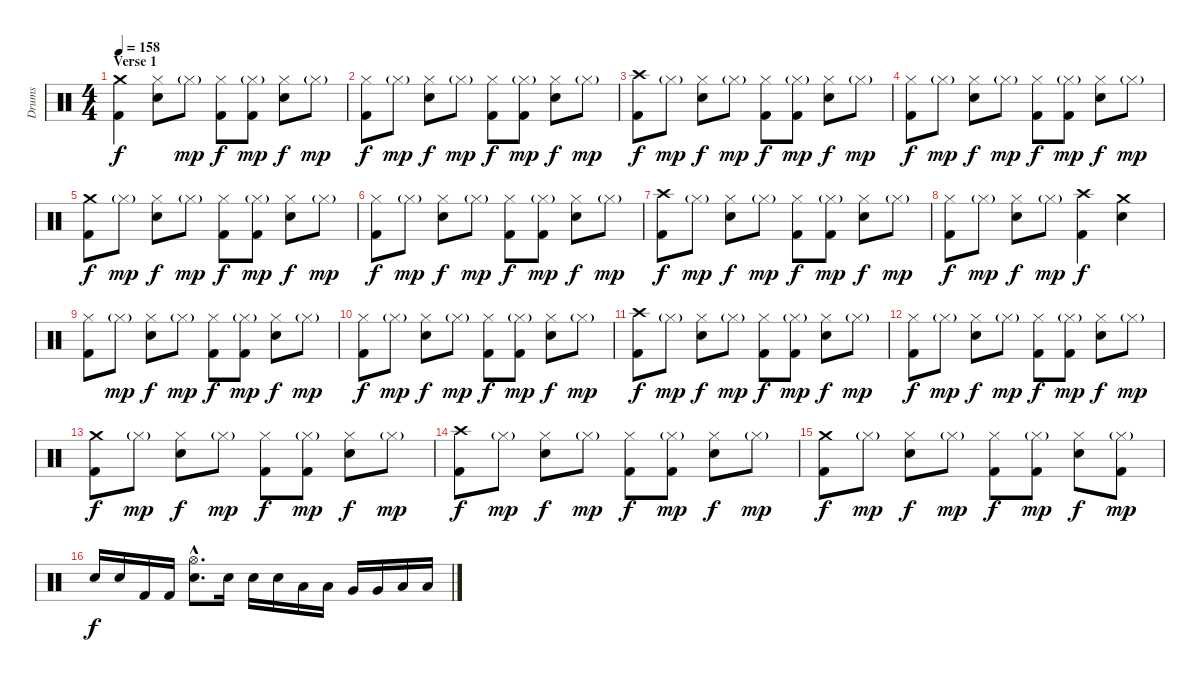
\track ("Drums" "Drums") {instrument percussion}
\staff {score}
\articulation defaults
\ts (4 4)
\section ("" "Verse 1")
\tempo 158
\clef neutral
\ks c
("Crash medium (hit)" "Kick (hit) 2").4{dy f} ("Hi-Hat (closed)" "Snare (hit) 2").8 "Hi-Hat (closed)"{g}.8{dy mp} ("Hi-Hat (closed)" "Kick (hit) 2").8{dy f} ("Hi-Hat (closed)"{g} "Kick (hit) 2").8{dy mp} ("Hi-Hat (closed)" "Snare (hit) 2").8{dy f} "Hi-Hat (closed)"{g}.8{dy mp} |
("Hi-Hat (closed)" "Kick (hit) 2").8{dy f} "Hi-Hat (closed)"{g}.8{dy mp} ("Hi-Hat (closed)" "Snare (hit) 2").8{dy f} "Hi-Hat (closed)"{g}.8{dy mp} ("Hi-Hat (closed)" "Kick (hit) 2").8{dy f} ("Hi-Hat (closed)"{g} "Kick (hit) 2").8{dy mp} ("Hi-Hat (closed)" "Snare (hit) 2").8{dy f} "Hi-Hat (closed)"{g}.8{dy mp} |
("Crash high (hit)" "Kick (hit) 2").8{dy f} "Hi-Hat (closed)"{g}.8{dy mp} ("Hi-Hat (closed)" "Snare (hit) 2").8{dy f} "Hi-Hat (closed)"{g}.8{dy mp} ("Hi-Hat (closed)" "Kick (hit) 2").8{dy f} ("Hi-Hat (closed)"{g} "Kick (hit) 2").8{dy mp} ("Hi-Hat (closed)" "Snare (hit) 2").8{dy f} "Hi-Hat (closed)"{g}.8{dy mp} |
("Hi-Hat (closed)" "Kick (hit) 2").8{dy f} "Hi-Hat (closed)"{g}.8{dy mp} ("Hi-Hat (closed)" "Snare (hit) 2").8{dy f} "Hi-Hat (closed)"{g}.8{dy mp} ("Hi-Hat (closed)" "Kick (hit) 2").8{dy f} ("Hi-Hat (closed)"{g} "Kick (hit) 2").8{dy mp} ("Hi-Hat (closed)" "Snare (hit) 2").8{dy f} "Hi-Hat (closed)"{g}.8{dy mp} |
("Crash medium (hit)" "Kick (hit) 2").8{dy f} "Hi-Hat (closed)"{g}.8{dy mp} ("Hi-Hat (closed)" "Snare (hit) 2").8{dy f} "Hi-Hat (closed)"{g}.8{dy mp} ("Hi-Hat (closed)" "Kick (hit) 2").8{dy f} ("Hi-Hat (closed)"{g} "Kick (hit) 2").8{dy mp} ("Hi-Hat (closed)" "Snare (hit) 2").8{dy f} "Hi-Hat (closed)"{g}.8{dy mp} |
("Hi-Hat (closed)" "Kick (hit) 2").8{dy f} "Hi-Hat (closed)"{g}.8{dy mp} ("Hi-Hat (closed)" "Snare (hit) 2").8{dy f} "Hi-Hat (closed)"{g}.8{dy mp} ("Hi-Hat (closed)" "Kick (hit) 2").8{dy f} ("Hi-Hat (closed)"{g} "Kick (hit) 2").8{dy mp} ("Hi-Hat (closed)" "Snare (hit) 2").8{dy f} "Hi-Hat (closed)"{g}.8{dy mp} |
("Crash high (hit)" "Kick (hit) 2").8{dy f} "Hi-Hat (closed)"{g}.8{dy mp} ("Hi-Hat (closed)" "Snare (hit) 2").8{dy f} "Hi-Hat (closed)"{g}.8{dy mp} ("Hi-Hat (closed)" "Kick (hit) 2").8{dy f} ("Hi-Hat (closed)"{g} "Kick (hit) 2").8{dy mp} ("Hi-Hat (closed)" "Snare (hit) 2").8{dy f} "Hi-Hat (closed)"{g}.8{dy mp} |
("Hi-Hat (closed)" "Kick (hit) 2").8{dy f} "Hi-Hat (closed)"{g}.8{dy mp} ("Hi-Hat (closed)" "Snare (hit) 2").8{dy f} "Hi-Hat (closed)"{g}.8{dy mp} ("Crash high (hit)" "Kick (hit) 2").4{dy f} ("Crash medium (hit)" "Snare (hit) 2").4 |
("Hi-Hat (closed)" "Kick (hit) 2").8 "Hi-Hat (closed)"{g}.8{dy mp} ("Hi-Hat (closed)" "Snare (hit) 2").8{dy f} "Hi-Hat (closed)"{g}.8{dy mp} ("Hi-Hat (closed)" "Kick (hit) 2").8{dy f} ("Hi-Hat (closed)"{g} "Kick (hit) 2").8{dy mp} ("Hi-Hat (closed)" "Snare (hit) 2").8{dy f} "Hi-Hat (closed)"{g}.8{dy mp} |
("Hi-Hat (closed)" "Kick (hit) 2").8{dy f} "Hi-Hat (closed)"{g}.8{dy mp} ("Hi-Hat (closed)" "Snare (hit) 2").8{dy f} "Hi-Hat (closed)"{g}.8{dy mp} ("Hi-Hat (closed)" "Kick (hit) 2").8{dy f} ("Hi-Hat (closed)"{g} "Kick (hit) 2").8{dy mp} ("Hi-Hat (closed)" "Snare (hit) 2").8{dy f} "Hi-Hat (closed)"{g}.8{dy mp} |
("Crash high (hit)" "Kick (hit) 2").8{dy f} "Hi-Hat (closed)"{g}.8{dy mp} ("Hi-Hat (closed)" "Snare (hit) 2").8{dy f} "Hi-Hat (closed)"{g}.8{dy mp} ("Hi-Hat (closed)" "Kick (hit) 2").8{dy f} ("Hi-Hat (closed)"{g} "Kick (hit) 2").8{dy mp} ("Hi-Hat (closed)" "Snare (hit) 2").8{dy f} "Hi-Hat (closed)"{g}.8{dy mp} |
("Hi-Hat (closed)" "Kick (hit) 2").8{dy f} "Hi-Hat (closed)"{g}.8{dy mp} ("Hi-Hat (closed)" "Snare (hit) 2").8{dy f} "Hi-Hat (closed)"{g}.8{dy mp} ("Hi-Hat (closed)" "Kick (hit) 2").8{dy f} ("Hi-Hat (closed)"{g} "Kick (hit) 2").8{dy mp} ("Hi-Hat (closed)" "Snare (hit) 2").8{dy f} "Hi-Hat (closed)"{g}.8{dy mp} |
("Crash medium (hit)" "Kick (hit) 2").8{dy f} "Hi-Hat (closed)"{g}.8{dy mp} ("Hi-Hat (closed)" "Snare (hit) 2").8{dy f} "Hi-Hat (closed)"{g}.8{dy mp} ("Hi-Hat (closed)" "Kick (hit) 2").8{dy f} ("Hi-Hat (closed)"{g} "Kick (hit) 2").8{dy mp} ("Hi-Hat (closed)" "Snare (hit) 2").8{dy f} "Hi-Hat (closed)"{g}.8{dy mp} |
("Crash high (hit)" "Kick (hit) 2").8{dy f} "Hi-Hat (closed)"{g}.8{dy mp} ("Hi-Hat (closed)" "Snare (hit) 2").8{dy f} "Hi-Hat (closed)"{g}.8{dy mp} ("Hi-Hat (closed)" "Kick (hit) 2").8{dy f} ("Hi-Hat (closed)"{g} "Kick (hit) 2").8{dy mp} ("Hi-Hat (closed)" "Snare (hit) 2").8{dy f} "Hi-Hat (closed)"{g}.8{dy mp} |
("Crash medium (hit)" "Kick (hit) 2").8{dy f} "Hi-Hat (closed)"{g}.8{dy mp} ("Hi-Hat (closed)" "Snare (hit) 2").8{dy f} "Hi-Hat (closed)"{g}.8{dy mp} ("Hi-Hat (closed)" "Kick (hit) 2").8{dy f} ("Hi-Hat (closed)"{g} "Kick (hit) 2").8{dy mp} ("Hi-Hat (closed)" "Snare (hit) 2").8{dy f} ("Hi-Hat (closed)"{g} "Kick (hit) 2").8{dy mp} |
"Snare (hit) 2".16{dy f} "Snare (hit) 2".16 "Kick (hit) 2".16 "Kick (hit) 2".16 ("Hi-Hat (open)"{hac} "Snare (hit) 2"{hac}).8{d} "Snare (hit) 2".16 "Snare (hit) 2".16 "Snare (hit) 2".16 "Low Tom (hit)".16 "Low Tom (hit)".16 "Very Low Tom (hit)".16 "Very Low Tom (hit)".16 "Low Floor Tom (hit)".16 "Low Floor Tom (hit)".16
